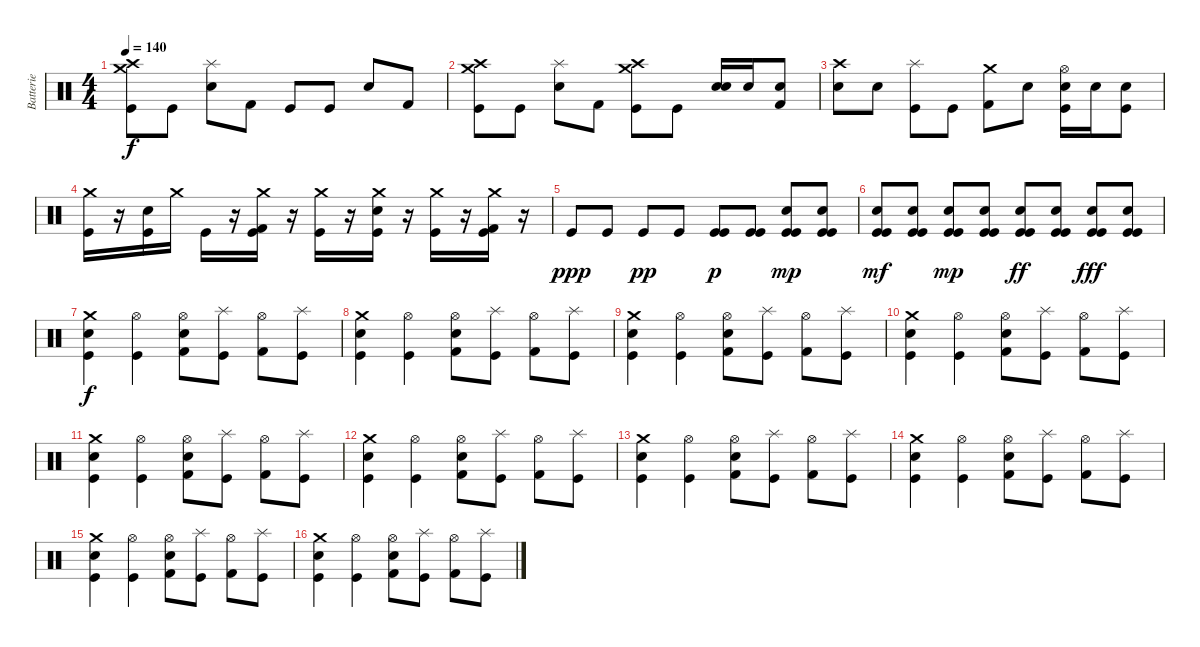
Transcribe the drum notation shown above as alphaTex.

\track ("Batterie" "Batterie") {instrument percussion}
\staff {score}
\articulation defaults
\ts (4 4)
\tempo 140
\clef neutral
\ks c
("Crash medium (hit)" "Crash high (hit)" "Kick (hit)").8{dy f} "Kick (hit)".8 ("Splash (hit)" "Electric Snare (hit)").8 "Kick (hit) 2".8 "Kick (hit)".8 "Kick (hit)".8 "Snare (hit) 2".8 "Kick (hit) 2".8 |
("Crash medium (hit)" "Crash high (hit)" "Kick (hit)").8 "Kick (hit)".8 ("Splash (hit)" "Electric Snare (hit)").8 "Kick (hit) 2".8 ("Crash medium (hit)" "Crash high (hit)" "Kick (hit)").8 "Kick (hit)".8 ("Snare (hit) 2" "Electric Snare (hit)").16 "Electric Snare (hit)".16 ("Electric Snare (hit)" "Kick (hit) 2").8 |
("Crash high (hit)" "Electric Snare (hit)").8 "Electric Snare (hit)".8 ("Splash (hit)" "Kick (hit)").8 "Kick (hit)".8 ("Crash medium (hit)" "Kick (hit) 2").8 "Electric Snare (hit)".8 ("Hi-Hat (open)" "Electric Snare (hit)" "Kick (hit)").16 "Electric Snare (hit)".16 ("Electric Snare (hit)" "Kick (hit)").8 |
("Crash medium (hit)" "Kick (hit)").16 r.16 ("Electric Snare (hit)" "Kick (hit)").16 "Crash medium (hit)".16 "Kick (hit)".16 r.16 ("Crash medium (hit)" "Kick (hit) 2" "Kick (hit)").16 r.16 ("Crash medium (hit)" "Kick (hit)").16 r.16 ("Crash medium (hit)" "Electric Snare (hit)" "Kick (hit)").16 r.16 ("Crash medium (hit)" "Kick (hit)").16 r.16 ("Crash medium (hit)" "Kick (hit) 2" "Kick (hit)").16 r.16 |
"Kick (hit)".8{dy ppp} "Kick (hit)".8 "Kick (hit)".8{dy pp} "Kick (hit)".8 ("Kick (hit)" "Kick (hit)").8{dy p} ("Kick (hit)" "Kick (hit)").8 ("Electric Snare (hit)" "Kick (hit)" "Kick (hit)").8{dy mp} ("Electric Snare (hit)" "Kick (hit)" "Kick (hit)").8 |
("Electric Snare (hit)" "Kick (hit)" "Kick (hit)").8{dy mf} ("Electric Snare (hit)" "Kick (hit)" "Kick (hit)").8 ("Electric Snare (hit)" "Kick (hit)" "Kick (hit)").8{dy mp} ("Electric Snare (hit)" "Kick (hit)" "Kick (hit)").8 ("Electric Snare (hit)" "Kick (hit)" "Kick (hit)").8{dy ff} ("Electric Snare (hit)" "Kick (hit)" "Kick (hit)").8 ("Electric Snare (hit)" "Kick (hit)" "Kick (hit)").8{dy fff} ("Electric Snare (hit)" "Kick (hit)" "Kick (hit)").8 |
("Crash medium (hit)" "Electric Snare (hit)" "Kick (hit)").4{dy f} ("Hi-Hat (open)" "Kick (hit)").4 ("Hi-Hat (open)" "Electric Snare (hit)" "Kick (hit) 2").8 ("Splash (hit)" "Kick (hit)").8 ("Hi-Hat (open)" "Kick (hit) 2").8 ("Splash (hit)" "Kick (hit)").8 |
("Crash medium (hit)" "Electric Snare (hit)" "Kick (hit)").4 ("Hi-Hat (open)" "Kick (hit)").4 ("Hi-Hat (open)" "Electric Snare (hit)" "Kick (hit) 2").8 ("Splash (hit)" "Kick (hit)").8 ("Hi-Hat (open)" "Kick (hit) 2").8 ("Splash (hit)" "Kick (hit)").8 |
("Crash medium (hit)" "Electric Snare (hit)" "Kick (hit)").4 ("Hi-Hat (open)" "Kick (hit)").4 ("Hi-Hat (open)" "Electric Snare (hit)" "Kick (hit) 2").8 ("Splash (hit)" "Kick (hit)").8 ("Hi-Hat (open)" "Kick (hit) 2").8 ("Splash (hit)" "Kick (hit)").8 |
("Crash medium (hit)" "Electric Snare (hit)" "Kick (hit)").4 ("Hi-Hat (open)" "Kick (hit)").4 ("Hi-Hat (open)" "Electric Snare (hit)" "Kick (hit) 2").8 ("Splash (hit)" "Kick (hit)").8 ("Hi-Hat (open)" "Kick (hit) 2").8 ("Splash (hit)" "Kick (hit)").8 |
("Crash medium (hit)" "Electric Snare (hit)" "Kick (hit)").4 ("Hi-Hat (open)" "Kick (hit)").4 ("Hi-Hat (open)" "Electric Snare (hit)" "Kick (hit) 2").8 ("Splash (hit)" "Kick (hit)").8 ("Hi-Hat (open)" "Kick (hit) 2").8 ("Splash (hit)" "Kick (hit)").8 |
("Crash medium (hit)" "Electric Snare (hit)" "Kick (hit)").4 ("Hi-Hat (open)" "Kick (hit)").4 ("Hi-Hat (open)" "Electric Snare (hit)" "Kick (hit) 2").8 ("Splash (hit)" "Kick (hit)").8 ("Hi-Hat (open)" "Kick (hit) 2").8 ("Splash (hit)" "Kick (hit)").8 |
("Crash medium (hit)" "Electric Snare (hit)" "Kick (hit)").4 ("Hi-Hat (open)" "Kick (hit)").4 ("Hi-Hat (open)" "Electric Snare (hit)" "Kick (hit) 2").8 ("Splash (hit)" "Kick (hit)").8 ("Hi-Hat (open)" "Kick (hit) 2").8 ("Splash (hit)" "Kick (hit)").8 |
("Crash medium (hit)" "Electric Snare (hit)" "Kick (hit)").4 ("Hi-Hat (open)" "Kick (hit)").4 ("Hi-Hat (open)" "Electric Snare (hit)" "Kick (hit) 2").8 ("Splash (hit)" "Kick (hit)").8 ("Hi-Hat (open)" "Kick (hit) 2").8 ("Splash (hit)" "Kick (hit)").8 |
("Crash medium (hit)" "Electric Snare (hit)" "Kick (hit)").4 ("Hi-Hat (open)" "Kick (hit)").4 ("Hi-Hat (open)" "Electric Snare (hit)" "Kick (hit) 2").8 ("Splash (hit)" "Kick (hit)").8 ("Hi-Hat (open)" "Kick (hit) 2").8 ("Splash (hit)" "Kick (hit)").8 |
("Crash medium (hit)" "Electric Snare (hit)" "Kick (hit)").4 ("Hi-Hat (open)" "Kick (hit)").4 ("Hi-Hat (open)" "Electric Snare (hit)" "Kick (hit) 2").8 ("Splash (hit)" "Kick (hit)").8 ("Hi-Hat (open)" "Kick (hit) 2").8 ("Splash (hit)" "Kick (hit)").8
